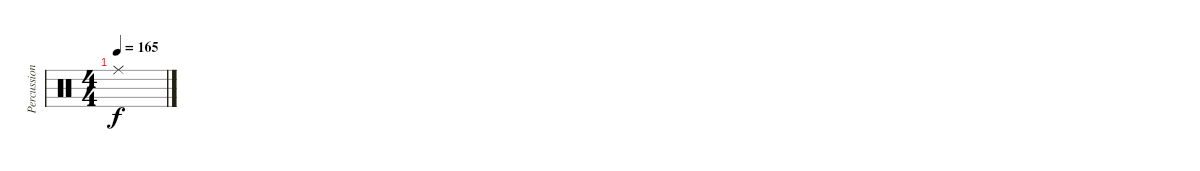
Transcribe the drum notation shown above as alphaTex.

\track ("Percussion" "Percussion") {instrument percussion}
\staff {score}
\articulation defaults
\ts (4 4)
\tempo 165
\clef neutral
\ks c "Ride (middle)".1{dy f}
